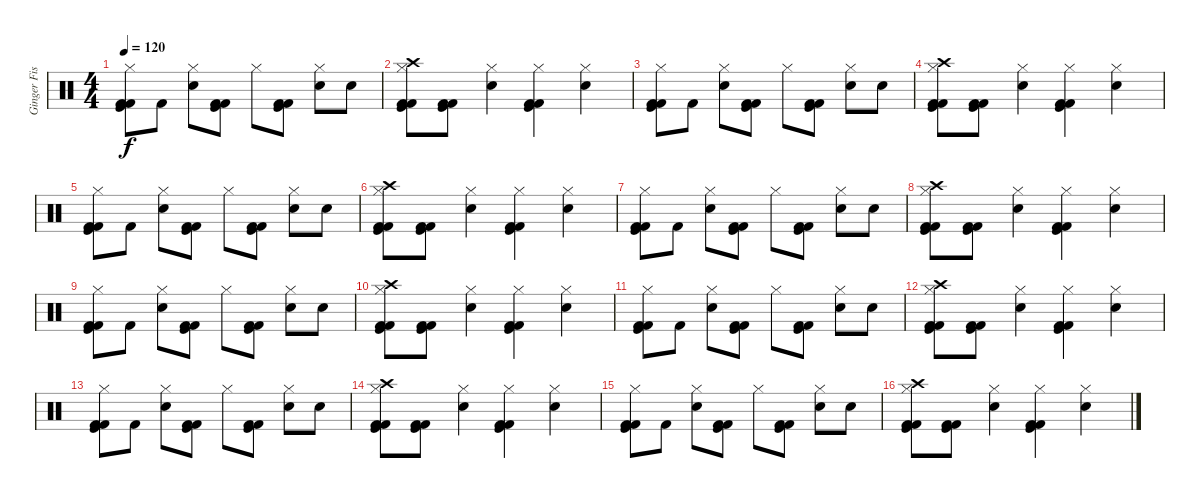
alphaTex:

\track ("Ginger Fish" "Ginger Fis") {instrument percussion}
\staff {score}
\articulation defaults
\ts (4 4)
\tempo 120
\clef neutral
\ks c
("Hi-Hat (closed)" "Kick (hit) 2" "Kick (hit)" "Kick (hit) 2").8{dy f} "Kick (hit) 2".8 ("Hi-Hat (closed)" "Electric Snare (hit)").8 ("Kick (hit) 2" "Kick (hit)" "Kick (hit) 2").8 "Hi-Hat (closed)".8 ("Kick (hit) 2" "Kick (hit)" "Kick (hit) 2").8 ("Hi-Hat (closed)" "Electric Snare (hit)").8 "Electric Snare (hit)".8 |
("Crash high (hit)" "Hi-Hat (closed)" "Kick (hit) 2" "Kick (hit)" "Kick (hit) 2").8 ("Kick (hit) 2" "Kick (hit)" "Kick (hit) 2").8 ("Hi-Hat (closed)" "Electric Snare (hit)").4 ("Hi-Hat (closed)" "Kick (hit) 2" "Kick (hit)" "Kick (hit) 2").4 ("Hi-Hat (closed)" "Electric Snare (hit)").4 |
("Hi-Hat (closed)" "Kick (hit) 2" "Kick (hit)" "Kick (hit) 2").8 "Kick (hit) 2".8 ("Hi-Hat (closed)" "Electric Snare (hit)").8 ("Kick (hit) 2" "Kick (hit)" "Kick (hit) 2").8 "Hi-Hat (closed)".8 ("Kick (hit) 2" "Kick (hit)" "Kick (hit) 2").8 ("Hi-Hat (closed)" "Electric Snare (hit)").8 "Electric Snare (hit)".8 |
("Crash high (hit)" "Hi-Hat (closed)" "Kick (hit) 2" "Kick (hit)" "Kick (hit) 2").8 ("Kick (hit) 2" "Kick (hit)" "Kick (hit) 2").8 ("Hi-Hat (closed)" "Electric Snare (hit)").4 ("Hi-Hat (closed)" "Kick (hit) 2" "Kick (hit)" "Kick (hit) 2").4 ("Hi-Hat (closed)" "Electric Snare (hit)").4 |
("Hi-Hat (closed)" "Kick (hit) 2" "Kick (hit)" "Kick (hit) 2").8 "Kick (hit) 2".8 ("Hi-Hat (closed)" "Electric Snare (hit)").8 ("Kick (hit) 2" "Kick (hit)" "Kick (hit) 2").8 "Hi-Hat (closed)".8 ("Kick (hit) 2" "Kick (hit)" "Kick (hit) 2").8 ("Hi-Hat (closed)" "Electric Snare (hit)").8 "Electric Snare (hit)".8 |
("Crash high (hit)" "Hi-Hat (closed)" "Kick (hit) 2" "Kick (hit)" "Kick (hit) 2").8 ("Kick (hit) 2" "Kick (hit)" "Kick (hit) 2").8 ("Hi-Hat (closed)" "Electric Snare (hit)").4 ("Hi-Hat (closed)" "Kick (hit) 2" "Kick (hit)" "Kick (hit) 2").4 ("Hi-Hat (closed)" "Electric Snare (hit)").4 |
("Hi-Hat (closed)" "Kick (hit) 2" "Kick (hit)" "Kick (hit) 2").8 "Kick (hit) 2".8 ("Hi-Hat (closed)" "Electric Snare (hit)").8 ("Kick (hit) 2" "Kick (hit)" "Kick (hit) 2").8 "Hi-Hat (closed)".8 ("Kick (hit) 2" "Kick (hit)" "Kick (hit) 2").8 ("Hi-Hat (closed)" "Electric Snare (hit)").8 "Electric Snare (hit)".8 |
("Crash high (hit)" "Hi-Hat (closed)" "Kick (hit) 2" "Kick (hit)" "Kick (hit) 2").8 ("Kick (hit) 2" "Kick (hit)" "Kick (hit) 2").8 ("Hi-Hat (closed)" "Electric Snare (hit)").4 ("Hi-Hat (closed)" "Kick (hit) 2" "Kick (hit)" "Kick (hit) 2").4 ("Hi-Hat (closed)" "Electric Snare (hit)").4 |
("Hi-Hat (closed)" "Kick (hit) 2" "Kick (hit)" "Kick (hit) 2").8 "Kick (hit) 2".8 ("Hi-Hat (closed)" "Electric Snare (hit)").8 ("Kick (hit) 2" "Kick (hit)" "Kick (hit) 2").8 "Hi-Hat (closed)".8 ("Kick (hit) 2" "Kick (hit)" "Kick (hit) 2").8 ("Hi-Hat (closed)" "Electric Snare (hit)").8 "Electric Snare (hit)".8 |
("Crash high (hit)" "Hi-Hat (closed)" "Kick (hit) 2" "Kick (hit)" "Kick (hit) 2").8 ("Kick (hit) 2" "Kick (hit)" "Kick (hit) 2").8 ("Hi-Hat (closed)" "Electric Snare (hit)").4 ("Hi-Hat (closed)" "Kick (hit) 2" "Kick (hit)" "Kick (hit) 2").4 ("Hi-Hat (closed)" "Electric Snare (hit)").4 |
("Hi-Hat (closed)" "Kick (hit) 2" "Kick (hit)" "Kick (hit) 2").8 "Kick (hit) 2".8 ("Hi-Hat (closed)" "Electric Snare (hit)").8 ("Kick (hit) 2" "Kick (hit)" "Kick (hit) 2").8 "Hi-Hat (closed)".8 ("Kick (hit) 2" "Kick (hit)" "Kick (hit) 2").8 ("Hi-Hat (closed)" "Electric Snare (hit)").8 "Electric Snare (hit)".8 |
("Crash high (hit)" "Hi-Hat (closed)" "Kick (hit) 2" "Kick (hit)" "Kick (hit) 2").8 ("Kick (hit) 2" "Kick (hit)" "Kick (hit) 2").8 ("Hi-Hat (closed)" "Electric Snare (hit)").4 ("Hi-Hat (closed)" "Kick (hit) 2" "Kick (hit)" "Kick (hit) 2").4 ("Hi-Hat (closed)" "Electric Snare (hit)").4 |
("Hi-Hat (closed)" "Kick (hit) 2" "Kick (hit)" "Kick (hit) 2").8 "Kick (hit) 2".8 ("Hi-Hat (closed)" "Electric Snare (hit)").8 ("Kick (hit) 2" "Kick (hit)" "Kick (hit) 2").8 "Hi-Hat (closed)".8 ("Kick (hit) 2" "Kick (hit)" "Kick (hit) 2").8 ("Hi-Hat (closed)" "Electric Snare (hit)").8 "Electric Snare (hit)".8 |
("Crash high (hit)" "Hi-Hat (closed)" "Kick (hit) 2" "Kick (hit)" "Kick (hit) 2").8 ("Kick (hit) 2" "Kick (hit)" "Kick (hit) 2").8 ("Hi-Hat (closed)" "Electric Snare (hit)").4 ("Hi-Hat (closed)" "Kick (hit) 2" "Kick (hit)" "Kick (hit) 2").4 ("Hi-Hat (closed)" "Electric Snare (hit)").4 |
("Hi-Hat (closed)" "Kick (hit) 2" "Kick (hit)" "Kick (hit) 2").8 "Kick (hit) 2".8 ("Hi-Hat (closed)" "Electric Snare (hit)").8 ("Kick (hit) 2" "Kick (hit)" "Kick (hit) 2").8 "Hi-Hat (closed)".8 ("Kick (hit) 2" "Kick (hit)" "Kick (hit) 2").8 ("Hi-Hat (closed)" "Electric Snare (hit)").8 "Electric Snare (hit)".8 |
("Crash high (hit)" "Hi-Hat (closed)" "Kick (hit) 2" "Kick (hit)" "Kick (hit) 2").8 ("Kick (hit) 2" "Kick (hit)" "Kick (hit) 2").8 ("Hi-Hat (closed)" "Electric Snare (hit)").4 ("Hi-Hat (closed)" "Kick (hit) 2" "Kick (hit)" "Kick (hit) 2").4 ("Hi-Hat (closed)" "Electric Snare (hit)").4
